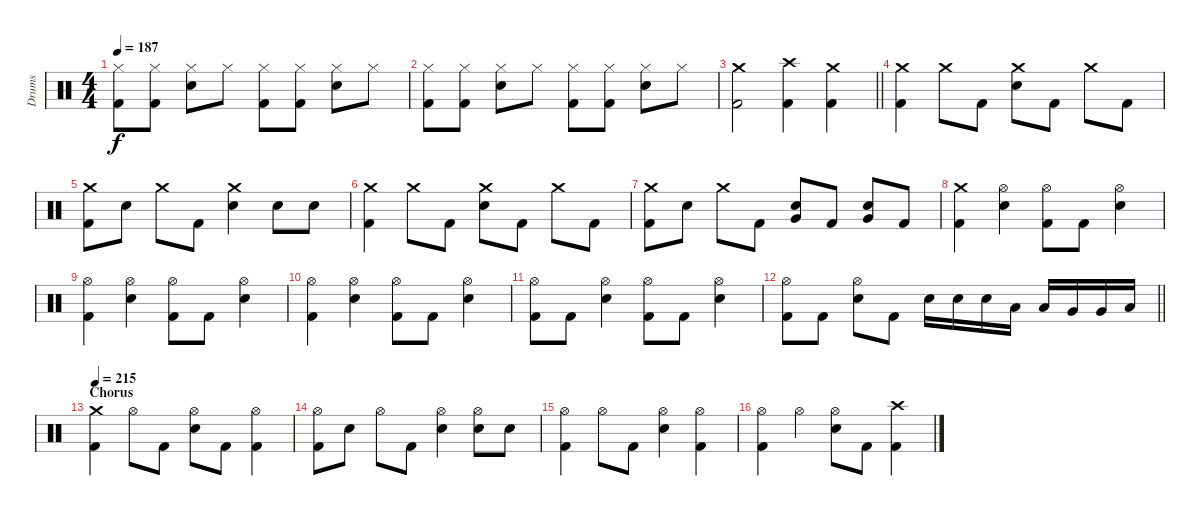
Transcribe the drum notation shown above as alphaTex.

\track ("Drums" "Drums") {instrument percussion}
\staff {score}
\articulation defaults
\ts (4 4)
\tempo 187
\clef neutral
\ks c
("Hi-Hat (closed)" "Kick (hit) 2").8{dy f} ("Hi-Hat (closed)" "Kick (hit) 2").8 ("Hi-Hat (closed)" "Electric Snare (hit)").8 "Hi-Hat (closed)".8 ("Hi-Hat (closed)" "Kick (hit) 2").8 ("Hi-Hat (closed)" "Kick (hit) 2").8 ("Hi-Hat (closed)" "Electric Snare (hit)").8 "Hi-Hat (closed)".8 |
("Hi-Hat (closed)" "Kick (hit) 2").8 ("Hi-Hat (closed)" "Kick (hit) 2").8 ("Hi-Hat (closed)" "Electric Snare (hit)").8 "Hi-Hat (closed)".8 ("Hi-Hat (closed)" "Kick (hit) 2").8 ("Hi-Hat (closed)" "Kick (hit) 2").8 ("Hi-Hat (closed)" "Electric Snare (hit)").8 "Hi-Hat (closed)".8 |
\barLineRight lightlight
("Crash medium (hit)" "Kick (hit) 2").2 ("Crash high (hit)" "Kick (hit) 2").4 ("Crash medium (hit)" "Kick (hit) 2").4 |
("Crash medium (hit)" "Kick (hit) 2").4 "Crash medium (hit)".8 "Kick (hit) 2".8 ("Crash medium (hit)" "Electric Snare (hit)").8 "Kick (hit) 2".8 "Crash medium (hit)".8 "Kick (hit) 2".8 |
("Crash medium (hit)" "Kick (hit) 2").8 "Electric Snare (hit)".8 "Crash medium (hit)".8 "Kick (hit) 2".8 ("Crash medium (hit)" "Electric Snare (hit)").4 "Electric Snare (hit)".8 "Electric Snare (hit)".8 |
("Crash medium (hit)" "Kick (hit) 2").4 "Crash medium (hit)".8 "Kick (hit) 2".8 ("Crash medium (hit)" "Electric Snare (hit)").8 "Kick (hit) 2".8 "Crash medium (hit)".8 "Kick (hit) 2".8 |
("Crash medium (hit)" "Kick (hit) 2").8 "Electric Snare (hit)".8 "Crash medium (hit)".8 "Kick (hit) 2".8 ("Very Low Tom (hit)" "Electric Snare (hit)").8 "Kick (hit) 2".8 ("Very Low Tom (hit)" "Electric Snare (hit)").8 "Kick (hit) 2".8 |
("Crash medium (hit)" "Kick (hit) 2").4 ("Hi-Hat (open)" "Electric Snare (hit)").4 ("Hi-Hat (open)" "Kick (hit) 2").8 "Kick (hit) 2".8 ("Hi-Hat (open)" "Electric Snare (hit)").4 |
("Hi-Hat (open)" "Kick (hit) 2").4 ("Hi-Hat (open)" "Electric Snare (hit)").4 ("Hi-Hat (open)" "Kick (hit) 2").8 "Kick (hit) 2".8 ("Hi-Hat (open)" "Electric Snare (hit)").4 |
("Hi-Hat (open)" "Kick (hit) 2").4 ("Hi-Hat (open)" "Electric Snare (hit)").4 ("Hi-Hat (open)" "Kick (hit) 2").8 "Kick (hit) 2".8 ("Hi-Hat (open)" "Electric Snare (hit)").4 |
("Hi-Hat (open)" "Kick (hit) 2").8 "Kick (hit) 2".8 ("Hi-Hat (open)" "Electric Snare (hit)").4 ("Hi-Hat (open)" "Kick (hit) 2").8 "Kick (hit) 2".8 ("Hi-Hat (open)" "Electric Snare (hit)").4 |
\barLineRight lightlight
("Hi-Hat (open)" "Kick (hit) 2").8 "Kick (hit) 2".8 ("Hi-Hat (open)" "Electric Snare (hit)").8 "Kick (hit) 2".8 "Electric Snare (hit)".16 "Electric Snare (hit)".16 "Electric Snare (hit)".16 "Low Tom (hit)".16 "Low Tom (hit)".16 "Very Low Tom (hit)".16 "Very Low Tom (hit)".16 "Low Floor Tom (hit)".16 |
\section ("" "Chorus")
\tempo 215
("Crash medium (hit)" "Kick (hit) 2").4 "Hi-Hat (open)".8 "Kick (hit) 2".8 ("Hi-Hat (open)" "Electric Snare (hit)").8 "Kick (hit) 2".8 ("Hi-Hat (open)" "Kick (hit) 2").4 |
("Hi-Hat (open)" "Kick (hit) 2").8 "Electric Snare (hit)".8 "Hi-Hat (open)".8 "Kick (hit) 2".8 ("Hi-Hat (open)" "Electric Snare (hit)").4 ("Hi-Hat (open)" "Electric Snare (hit)").8 "Electric Snare (hit)".8 |
("Hi-Hat (open)" "Kick (hit) 2").4 "Hi-Hat (open)".8 "Kick (hit) 2".8 ("Hi-Hat (open)" "Electric Snare (hit)").4 ("Hi-Hat (open)" "Kick (hit) 2").4 |
("Hi-Hat (open)" "Kick (hit) 2").4 "Hi-Hat (open)".4 ("Hi-Hat (open)" "Electric Snare (hit)").8 "Kick (hit) 2".8 ("Crash high (hit)" "Kick (hit) 2").4
